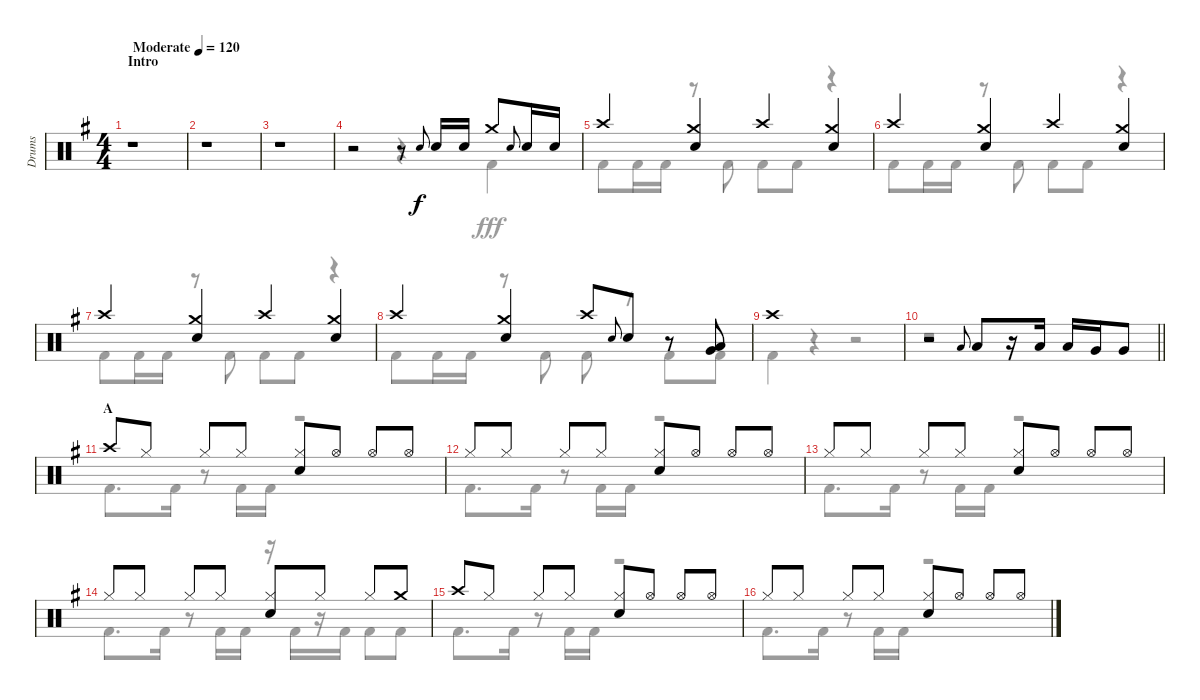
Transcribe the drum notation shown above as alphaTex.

\track ("Drums" "Drums") {instrument percussion}
\staff {score}
\articulation defaults
\voice
\ts (4 4)
\section ("" "Intro")
\tempo (120 "Moderate")
\clef neutral
\ks eminor
r.1{dy f} |
r.1 |
r.1 |
r.2 r.8 "Snare (hit) 2".8{gr onbeat} "Snare (hit) 2".16 "Snare (hit) 2".16 "Crash medium (hit)".8 "Snare (hit) 2".8{gr onbeat} "Snare (hit) 2".16 "Snare (hit) 2".16 |
"Crash high (hit)".4 ("Crash medium (hit)" "Snare (hit) 2").4 "Crash high (hit)".4 ("Crash medium (hit)" "Snare (hit) 2").4 |
"Crash high (hit)".4 ("Crash medium (hit)" "Snare (hit) 2").4 "Crash high (hit)".4 ("Crash medium (hit)" "Snare (hit) 2").4 |
"Crash high (hit)".4 ("Crash medium (hit)" "Snare (hit) 2").4 "Crash high (hit)".4 ("Crash medium (hit)" "Snare (hit) 2").4 |
"Crash high (hit)".4 ("Crash medium (hit)" "Snare (hit) 2").4 "Crash high (hit)".8 "Snare (hit) 2".8{gr onbeat} "Snare (hit) 2".8 r.8 ("Low Tom (hit)" "Very Low Tom (hit)").8 |
"Crash high (hit)".1 |
\barLineRight lightlight
r.2 "Low Tom (hit)".8{gr onbeat} "Low Tom (hit)".8 r.16 "Low Tom (hit)".16 "Low Tom (hit)".16 "Very Low Tom (hit)".16 "Very Low Tom (hit)".8 |
\section ("" "A")
\ks g "Crash high (hit)".8 "Hi-Hat (closed)".8 "Hi-Hat (closed)".8 "Hi-Hat (closed)".8
("Hi-Hat (closed)" "Snare (hit) 2").8 "Hi-Hat (open)".8 "Hi-Hat (open)".8 "Hi-Hat (open)".8 |
"Hi-Hat (closed)".8 "Hi-Hat (closed)".8 "Hi-Hat (closed)".8 "Hi-Hat (closed)".8 ("Hi-Hat (closed)" "Snare (hit) 2").8 "Hi-Hat (open)".8 "Hi-Hat (open)".8 "Hi-Hat (open)".8 |
"Hi-Hat (closed)".8 "Hi-Hat (closed)".8 "Hi-Hat (closed)".8 "Hi-Hat (closed)".8 ("Hi-Hat (closed)" "Snare (hit) 2").8 "Hi-Hat (open)".8 "Hi-Hat (open)".8 "Hi-Hat (open)".8 |
"Hi-Hat (closed)".8 "Hi-Hat (closed)".8 "Hi-Hat (closed)".8 "Hi-Hat (closed)".8 ("Hi-Hat (closed)" "Snare (hit) 2").8 "Hi-Hat (closed)".8 "Hi-Hat (closed)".8 "Crash medium (hit)".8 |
"Crash high (hit)".8 "Hi-Hat (closed)".8 "Hi-Hat (closed)".8 "Hi-Hat (closed)".8 ("Hi-Hat (closed)" "Snare (hit) 2").8 "Hi-Hat (open)".8 "Hi-Hat (open)".8 "Hi-Hat (open)".8 |
"Hi-Hat (closed)".8 "Hi-Hat (closed)".8 "Hi-Hat (closed)".8 "Hi-Hat (closed)".8 ("Hi-Hat (closed)" "Snare (hit) 2").8 "Hi-Hat (open)".8 "Hi-Hat (open)".8 "Hi-Hat (open)".8
\voice
\clef neutral
\ottava regular
\simile none
\ks eminor
r.1{dy fff} |
r.1 |
r.1 |
r.2 r.4 "Kick (hit) 2".4 |
"Kick (hit) 2".8 "Kick (hit) 2".16 "Kick (hit) 2".16 r.8 "Kick (hit) 2".8 "Kick (hit) 2".8 "Kick (hit) 2".8 r.4 |
"Kick (hit) 2".8 "Kick (hit) 2".16 "Kick (hit) 2".16 r.8 "Kick (hit) 2".8 "Kick (hit) 2".8 "Kick (hit) 2".8 r.4 |
"Kick (hit) 2".8 "Kick (hit) 2".16 "Kick (hit) 2".16 r.8 "Kick (hit) 2".8 "Kick (hit) 2".8 "Kick (hit) 2".8 r.4 |
"Kick (hit) 2".8 "Kick (hit) 2".16 "Kick (hit) 2".16 r.8 "Kick (hit) 2".8 "Kick (hit) 2".8 r.8 "Kick (hit) 2".8 "Kick (hit) 2".8 |
"Kick (hit) 2".4 r.4 r.2 |
\barLineRight lightlight
r.1 |
\ks g "Kick (hit) 2".8{d} "Kick (hit) 2".16
r.8 "Kick (hit) 2".16 "Kick (hit) 2".16 r.2 |
"Kick (hit) 2".8{d} "Kick (hit) 2".16 r.8 "Kick (hit) 2".16 "Kick (hit) 2".16 r.2 |
"Kick (hit) 2".8{d} "Kick (hit) 2".16 r.8 "Kick (hit) 2".16 "Kick (hit) 2".16 r.2 |
"Kick (hit) 2".8{d} "Kick (hit) 2".16 r.8 "Kick (hit) 2".16 "Kick (hit) 2".16 r.16 "Kick (hit) 2".16 r.16 "Kick (hit) 2".16 "Kick (hit) 2".8 "Kick (hit) 2".8 |
"Kick (hit) 2".8{d} "Kick (hit) 2".16 r.8 "Kick (hit) 2".16 "Kick (hit) 2".16 r.2 |
"Kick (hit) 2".8{d} "Kick (hit) 2".16 r.8 "Kick (hit) 2".16 "Kick (hit) 2".16 r.2
